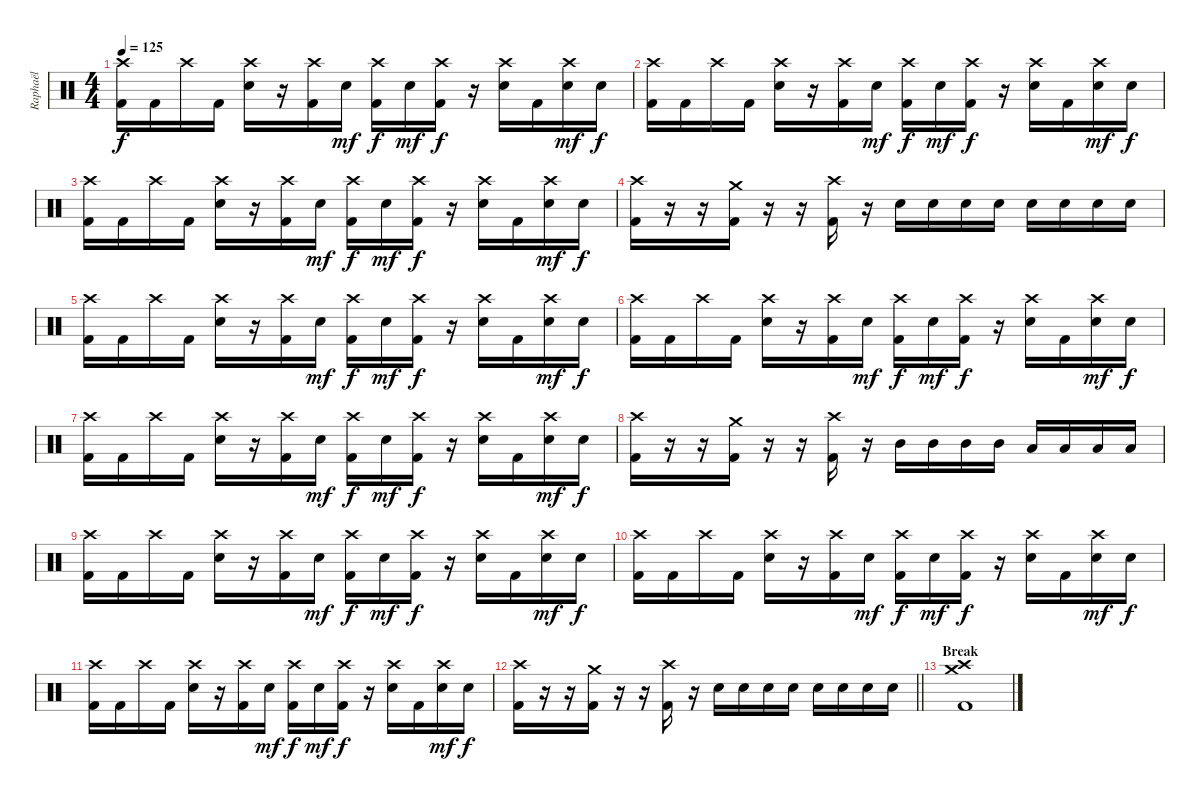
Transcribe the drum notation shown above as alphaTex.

\track ("Raphaël" "Raphaël") {instrument percussion}
\staff {score}
\articulation defaults
\ts (4 4)
\tempo 125
\clef neutral
\ks c
("Kick (hit) 2" "Crash high (hit)").16{dy f} "Kick (hit) 2".16 "Crash high (hit)".16 "Kick (hit) 2".16 ("Electric Snare (hit)" "Crash high (hit)").16 r.16 ("Kick (hit) 2" "Crash high (hit)").16 "Electric Snare (hit)".16{dy mf} ("Kick (hit) 2" "Crash high (hit)").16{dy f} "Electric Snare (hit)".16{dy mf} ("Kick (hit) 2" "Crash high (hit)").16{dy f} r.16 ("Electric Snare (hit)" "Crash high (hit)").16 "Kick (hit) 2".16 ("Electric Snare (hit)" "Crash high (hit)").16{dy mf} "Electric Snare (hit)".16{dy f} |
("Kick (hit) 2" "Crash high (hit)").16 "Kick (hit) 2".16 "Crash high (hit)".16 "Kick (hit) 2".16 ("Electric Snare (hit)" "Crash high (hit)").16 r.16 ("Kick (hit) 2" "Crash high (hit)").16 "Electric Snare (hit)".16{dy mf} ("Kick (hit) 2" "Crash high (hit)").16{dy f} "Electric Snare (hit)".16{dy mf} ("Kick (hit) 2" "Crash high (hit)").16{dy f} r.16 ("Electric Snare (hit)" "Crash high (hit)").16 "Kick (hit) 2".16 ("Electric Snare (hit)" "Crash high (hit)").16{dy mf} "Electric Snare (hit)".16{dy f} |
("Kick (hit) 2" "Crash high (hit)").16 "Kick (hit) 2".16 "Crash high (hit)".16 "Kick (hit) 2".16 ("Electric Snare (hit)" "Crash high (hit)").16 r.16 ("Kick (hit) 2" "Crash high (hit)").16 "Electric Snare (hit)".16{dy mf} ("Kick (hit) 2" "Crash high (hit)").16{dy f} "Electric Snare (hit)".16{dy mf} ("Kick (hit) 2" "Crash high (hit)").16{dy f} r.16 ("Electric Snare (hit)" "Crash high (hit)").16 "Kick (hit) 2".16 ("Electric Snare (hit)" "Crash high (hit)").16{dy mf} "Electric Snare (hit)".16{dy f} |
("Kick (hit) 2" "Crash high (hit)").16 r.16 r.16 ("Kick (hit) 2" "Crash medium (hit)").16 r.16 r.16 ("Kick (hit) 2" "Crash high (hit)").16 r.16 "Electric Snare (hit)".16 "Electric Snare (hit)".16 "Electric Snare (hit)".16 "Electric Snare (hit)".16 "Electric Snare (hit)".16 "Electric Snare (hit)".16 "Electric Snare (hit)".16 "Electric Snare (hit)".16 |
("Kick (hit) 2" "Crash high (hit)").16 "Kick (hit) 2".16 "Crash high (hit)".16 "Kick (hit) 2".16 ("Electric Snare (hit)" "Crash high (hit)").16 r.16 ("Kick (hit) 2" "Crash high (hit)").16 "Electric Snare (hit)".16{dy mf} ("Kick (hit) 2" "Crash high (hit)").16{dy f} "Electric Snare (hit)".16{dy mf} ("Kick (hit) 2" "Crash high (hit)").16{dy f} r.16 ("Electric Snare (hit)" "Crash high (hit)").16 "Kick (hit) 2".16 ("Electric Snare (hit)" "Crash high (hit)").16{dy mf} "Electric Snare (hit)".16{dy f} |
("Kick (hit) 2" "Crash high (hit)").16 "Kick (hit) 2".16 "Crash high (hit)".16 "Kick (hit) 2".16 ("Electric Snare (hit)" "Crash high (hit)").16 r.16 ("Kick (hit) 2" "Crash high (hit)").16 "Electric Snare (hit)".16{dy mf} ("Kick (hit) 2" "Crash high (hit)").16{dy f} "Electric Snare (hit)".16{dy mf} ("Kick (hit) 2" "Crash high (hit)").16{dy f} r.16 ("Electric Snare (hit)" "Crash high (hit)").16 "Kick (hit) 2".16 ("Electric Snare (hit)" "Crash high (hit)").16{dy mf} "Electric Snare (hit)".16{dy f} |
("Kick (hit) 2" "Crash high (hit)").16 "Kick (hit) 2".16 "Crash high (hit)".16 "Kick (hit) 2".16 ("Electric Snare (hit)" "Crash high (hit)").16 r.16 ("Kick (hit) 2" "Crash high (hit)").16 "Electric Snare (hit)".16{dy mf} ("Kick (hit) 2" "Crash high (hit)").16{dy f} "Electric Snare (hit)".16{dy mf} ("Kick (hit) 2" "Crash high (hit)").16{dy f} r.16 ("Electric Snare (hit)" "Crash high (hit)").16 "Kick (hit) 2".16 ("Electric Snare (hit)" "Crash high (hit)").16{dy mf} "Electric Snare (hit)".16{dy f} |
("Kick (hit) 2" "Crash high (hit)").16 r.16 r.16 ("Kick (hit) 2" "Crash medium (hit)").16 r.16 r.16 ("Kick (hit) 2" "Crash high (hit)").16 r.16 "Mid Tom (hit)".16 "Mid Tom (hit)".16 "Mid Tom (hit)".16 "Mid Tom (hit)".16 "Low Tom (hit)".16 "Low Tom (hit)".16 "Low Tom (hit)".16 "Low Tom (hit)".16 |
("Kick (hit) 2" "Crash high (hit)").16 "Kick (hit) 2".16 "Crash high (hit)".16 "Kick (hit) 2".16 ("Electric Snare (hit)" "Crash high (hit)").16 r.16 ("Kick (hit) 2" "Crash high (hit)").16 "Electric Snare (hit)".16{dy mf} ("Kick (hit) 2" "Crash high (hit)").16{dy f} "Electric Snare (hit)".16{dy mf} ("Kick (hit) 2" "Crash high (hit)").16{dy f} r.16 ("Electric Snare (hit)" "Crash high (hit)").16 "Kick (hit) 2".16 ("Electric Snare (hit)" "Crash high (hit)").16{dy mf} "Electric Snare (hit)".16{dy f} |
("Kick (hit) 2" "Crash high (hit)").16 "Kick (hit) 2".16 "Crash high (hit)".16 "Kick (hit) 2".16 ("Electric Snare (hit)" "Crash high (hit)").16 r.16 ("Kick (hit) 2" "Crash high (hit)").16 "Electric Snare (hit)".16{dy mf} ("Kick (hit) 2" "Crash high (hit)").16{dy f} "Electric Snare (hit)".16{dy mf} ("Kick (hit) 2" "Crash high (hit)").16{dy f} r.16 ("Electric Snare (hit)" "Crash high (hit)").16 "Kick (hit) 2".16 ("Electric Snare (hit)" "Crash high (hit)").16{dy mf} "Electric Snare (hit)".16{dy f} |
("Kick (hit) 2" "Crash high (hit)").16 "Kick (hit) 2".16 "Crash high (hit)".16 "Kick (hit) 2".16 ("Electric Snare (hit)" "Crash high (hit)").16 r.16 ("Kick (hit) 2" "Crash high (hit)").16 "Electric Snare (hit)".16{dy mf} ("Kick (hit) 2" "Crash high (hit)").16{dy f} "Electric Snare (hit)".16{dy mf} ("Kick (hit) 2" "Crash high (hit)").16{dy f} r.16 ("Electric Snare (hit)" "Crash high (hit)").16 "Kick (hit) 2".16 ("Electric Snare (hit)" "Crash high (hit)").16{dy mf} "Electric Snare (hit)".16{dy f} |
\barLineRight lightlight
("Kick (hit) 2" "Crash high (hit)").16 r.16 r.16 ("Kick (hit) 2" "Crash medium (hit)").16 r.16 r.16 ("Kick (hit) 2" "Crash high (hit)").16 r.16 "Electric Snare (hit)".16 "Electric Snare (hit)".16 "Electric Snare (hit)".16 "Electric Snare (hit)".16 "Electric Snare (hit)".16 "Electric Snare (hit)".16 "Electric Snare (hit)".16 "Electric Snare (hit)".16 |
\section ("" "Break")
("Kick (hit) 2" "Crash medium (hit)" "Crash high (hit)").1
